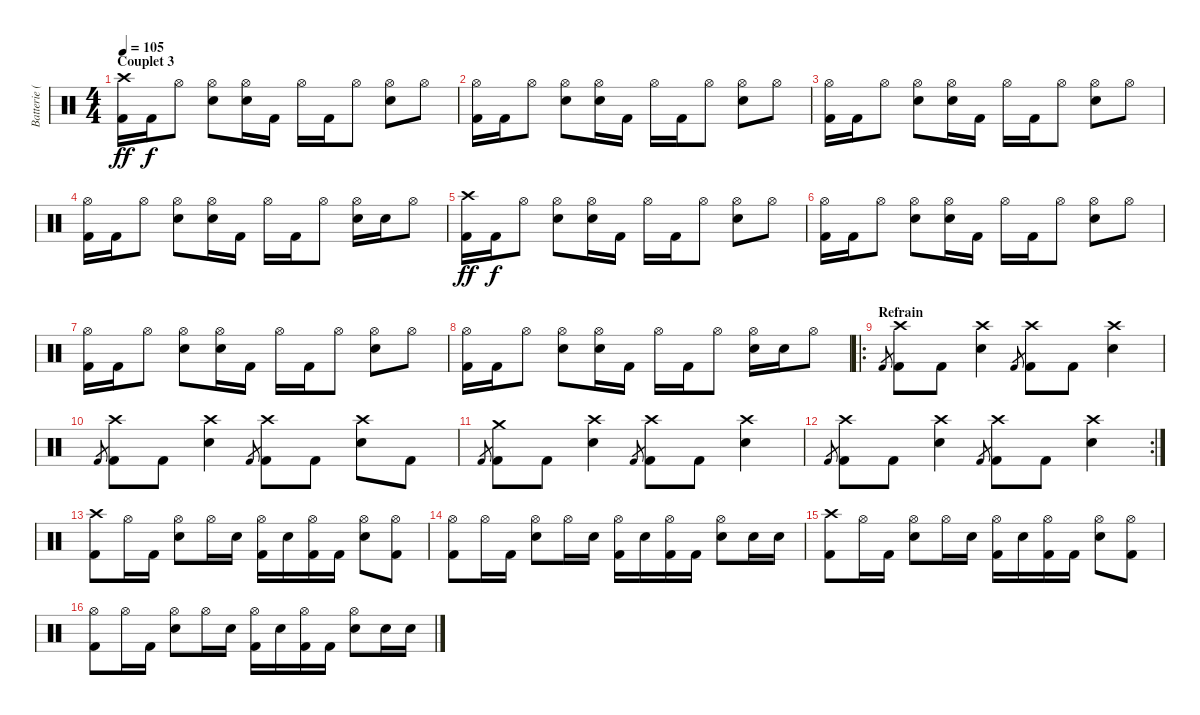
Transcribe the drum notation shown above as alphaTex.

\track ("Batterie (Preston Nash)" "Batterie (") {instrument percussion}
\staff {score}
\articulation defaults
\ts (4 4)
\section ("" "Couplet 3")
\tempo 105
\clef neutral
\ks c
("Crash high (hit)" "Kick (hit) 2").16{dy ff} "Kick (hit) 2".16{dy f} "Hi-Hat (open)".8 ("Hi-Hat (open)" "Electric Snare (hit)").8 ("Hi-Hat (open)" "Electric Snare (hit)").16 "Kick (hit) 2".16 "Hi-Hat (open)".16 "Kick (hit) 2".16 "Hi-Hat (open)".8 ("Hi-Hat (open)" "Electric Snare (hit)").8 "Hi-Hat (open)".8 |
("Hi-Hat (open)" "Kick (hit) 2").16 "Kick (hit) 2".16 "Hi-Hat (open)".8 ("Hi-Hat (open)" "Electric Snare (hit)").8 ("Hi-Hat (open)" "Electric Snare (hit)").16 "Kick (hit) 2".16 "Hi-Hat (open)".16 "Kick (hit) 2".16 "Hi-Hat (open)".8 ("Hi-Hat (open)" "Electric Snare (hit)").8 "Hi-Hat (open)".8 |
("Hi-Hat (open)" "Kick (hit) 2").16 "Kick (hit) 2".16 "Hi-Hat (open)".8 ("Hi-Hat (open)" "Electric Snare (hit)").8 ("Hi-Hat (open)" "Electric Snare (hit)").16 "Kick (hit) 2".16 "Hi-Hat (open)".16 "Kick (hit) 2".16 "Hi-Hat (open)".8 ("Hi-Hat (open)" "Electric Snare (hit)").8 "Hi-Hat (open)".8 |
("Hi-Hat (open)" "Kick (hit) 2").16 "Kick (hit) 2".16 "Hi-Hat (open)".8 ("Hi-Hat (open)" "Electric Snare (hit)").8 ("Hi-Hat (open)" "Electric Snare (hit)").16 "Kick (hit) 2".16 "Hi-Hat (open)".16 "Kick (hit) 2".16 "Hi-Hat (open)".8 ("Hi-Hat (open)" "Electric Snare (hit)").16 "Electric Snare (hit)".16 "Hi-Hat (open)".8 |
("Crash high (hit)" "Kick (hit) 2").16{dy ff} "Kick (hit) 2".16{dy f} "Hi-Hat (open)".8 ("Hi-Hat (open)" "Electric Snare (hit)").8 ("Hi-Hat (open)" "Electric Snare (hit)").16 "Kick (hit) 2".16 "Hi-Hat (open)".16 "Kick (hit) 2".16 "Hi-Hat (open)".8 ("Hi-Hat (open)" "Electric Snare (hit)").8 "Hi-Hat (open)".8 |
("Hi-Hat (open)" "Kick (hit) 2").16 "Kick (hit) 2".16 "Hi-Hat (open)".8 ("Hi-Hat (open)" "Electric Snare (hit)").8 ("Hi-Hat (open)" "Electric Snare (hit)").16 "Kick (hit) 2".16 "Hi-Hat (open)".16 "Kick (hit) 2".16 "Hi-Hat (open)".8 ("Hi-Hat (open)" "Electric Snare (hit)").8 "Hi-Hat (open)".8 |
("Hi-Hat (open)" "Kick (hit) 2").16 "Kick (hit) 2".16 "Hi-Hat (open)".8 ("Hi-Hat (open)" "Electric Snare (hit)").8 ("Hi-Hat (open)" "Electric Snare (hit)").16 "Kick (hit) 2".16 "Hi-Hat (open)".16 "Kick (hit) 2".16 "Hi-Hat (open)".8 ("Hi-Hat (open)" "Electric Snare (hit)").8 "Hi-Hat (open)".8 |
("Hi-Hat (open)" "Kick (hit) 2").16 "Kick (hit) 2".16 "Hi-Hat (open)".8 ("Hi-Hat (open)" "Electric Snare (hit)").8 ("Hi-Hat (open)" "Electric Snare (hit)").16 "Kick (hit) 2".16 "Hi-Hat (open)".16 "Kick (hit) 2".16 "Hi-Hat (open)".8 ("Hi-Hat (open)" "Electric Snare (hit)").16 "Electric Snare (hit)".16 "Hi-Hat (open)".8 |
\ro
\section ("" "Refrain")
"Kick (hit) 2".8{gr} ("Crash high (hit)" "Kick (hit) 2").8 "Kick (hit) 2".8 ("Crash high (hit)" "Electric Snare (hit)").4 "Kick (hit) 2".8{gr} ("Crash high (hit)" "Kick (hit) 2").8 "Kick (hit) 2".8 ("Crash high (hit)" "Electric Snare (hit)").4 |
"Kick (hit) 2".8{gr} ("Crash high (hit)" "Kick (hit) 2").8 "Kick (hit) 2".8 ("Crash high (hit)" "Electric Snare (hit)").4 "Kick (hit) 2".8{gr} ("Crash high (hit)" "Kick (hit) 2").8 "Kick (hit) 2".8 ("Crash high (hit)" "Electric Snare (hit)").8 "Kick (hit) 2".8 |
"Kick (hit) 2".8{gr} ("Crash medium (hit)" "Kick (hit) 2").8 "Kick (hit) 2".8 ("Crash high (hit)" "Electric Snare (hit)").4 "Kick (hit) 2".8{gr} ("Crash high (hit)" "Kick (hit) 2").8 "Kick (hit) 2".8 ("Crash high (hit)" "Electric Snare (hit)").4 |
\rc 2 "Kick (hit) 2".8{gr}
("Crash high (hit)" "Kick (hit) 2").8 "Kick (hit) 2".8 ("Crash high (hit)" "Electric Snare (hit)").4 "Kick (hit) 2".8{gr} ("Crash high (hit)" "Kick (hit) 2").8 "Kick (hit) 2".8 ("Crash high (hit)" "Electric Snare (hit)").4 |
("Crash high (hit)" "Kick (hit) 2").8 "Hi-Hat (open)".16 "Kick (hit) 2".16 ("Hi-Hat (open)" "Electric Snare (hit)").8 "Hi-Hat (open)".16 "Electric Snare (hit)".16 ("Hi-Hat (open)" "Kick (hit) 2").16 "Electric Snare (hit)".16 ("Hi-Hat (open)" "Kick (hit) 2").16 "Kick (hit) 2".16 ("Hi-Hat (open)" "Electric Snare (hit)").8 ("Hi-Hat (open)" "Kick (hit) 2").8 |
("Hi-Hat (open)" "Kick (hit) 2").8 "Hi-Hat (open)".16 "Kick (hit) 2".16 ("Hi-Hat (open)" "Electric Snare (hit)").8 "Hi-Hat (open)".16 "Electric Snare (hit)".16 ("Hi-Hat (open)" "Kick (hit) 2").16 "Electric Snare (hit)".16 ("Hi-Hat (open)" "Kick (hit) 2").16 "Kick (hit) 2".16 ("Hi-Hat (open)" "Electric Snare (hit)").8 "Electric Snare (hit)".16 "Electric Snare (hit)".16 |
("Crash high (hit)" "Kick (hit) 2").8 "Hi-Hat (open)".16 "Kick (hit) 2".16 ("Hi-Hat (open)" "Electric Snare (hit)").8 "Hi-Hat (open)".16 "Electric Snare (hit)".16 ("Hi-Hat (open)" "Kick (hit) 2").16 "Electric Snare (hit)".16 ("Hi-Hat (open)" "Kick (hit) 2").16 "Kick (hit) 2".16 ("Hi-Hat (open)" "Electric Snare (hit)").8 ("Hi-Hat (open)" "Kick (hit) 2").8 |
("Hi-Hat (open)" "Kick (hit) 2").8 "Hi-Hat (open)".16 "Kick (hit) 2".16 ("Hi-Hat (open)" "Electric Snare (hit)").8 "Hi-Hat (open)".16 "Electric Snare (hit)".16 ("Hi-Hat (open)" "Kick (hit) 2").16 "Electric Snare (hit)".16 ("Hi-Hat (open)" "Kick (hit) 2").16 "Kick (hit) 2".16 ("Hi-Hat (open)" "Electric Snare (hit)").8 "Electric Snare (hit)".16 "Electric Snare (hit)".16
